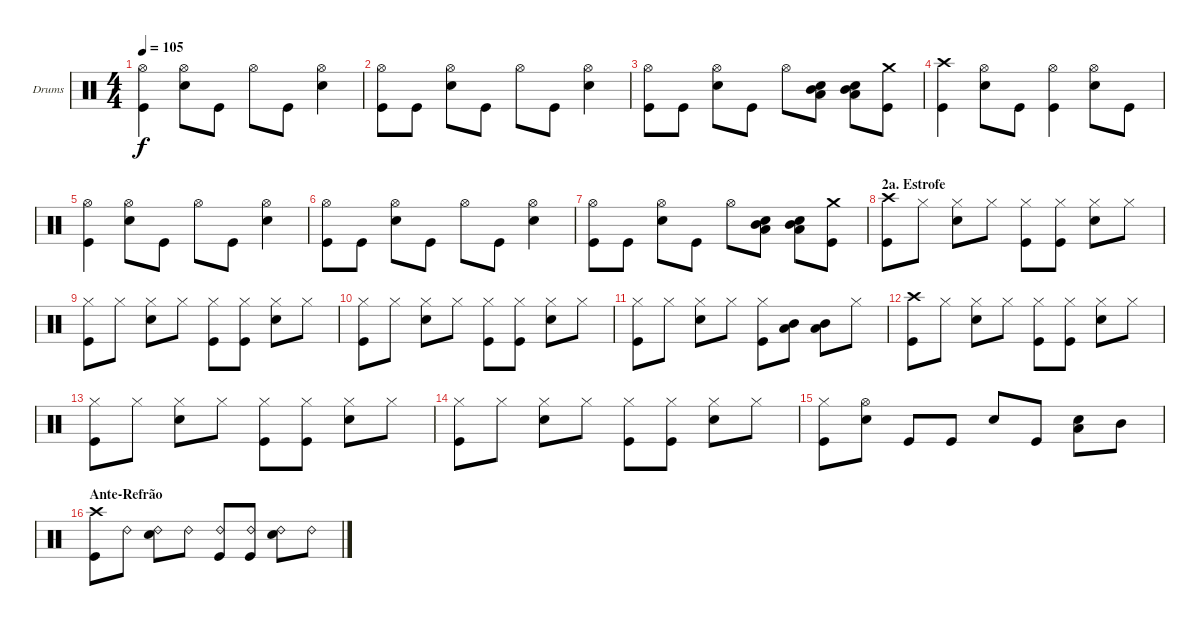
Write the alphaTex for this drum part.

\bracketExtendMode groupsimilarinstruments
\firstSystemTrackNameOrientation horizontal
\otherSystemsTrackNameOrientation horizontal
\track ("Drumkit" "Drums") {instrument percussion}
\staff {score}
\articulation defaults
\ts (4 4)
\tempo 105
\clef neutral
\ks c
("Hi-Hat (open)" "Kick (hit)").4{dy f} ("Hi-Hat (open)" "Snare (hit) 2").8 "Kick (hit)".8 "Hi-Hat (open)".8 "Kick (hit)".8 ("Hi-Hat (open)" "Snare (hit) 2").4 |
("Hi-Hat (open)" "Kick (hit)").8 "Kick (hit)".8 ("Hi-Hat (open)" "Snare (hit) 2").8 "Kick (hit)".8 "Hi-Hat (open)".8 "Kick (hit)".8 ("Hi-Hat (open)" "Snare (hit) 2").4 |
("Hi-Hat (open)" "Kick (hit)").8 "Kick (hit)".8 ("Hi-Hat (open)" "Snare (hit) 2").8 "Kick (hit)".8 "Hi-Hat (open)".8 ("Mid Tom (hit)" "Low Tom (hit)" "Snare (hit) 2").8 ("Mid Tom (hit)" "Low Tom (hit)" "Snare (hit) 2").8 ("Crash medium (hit)" "Kick (hit)").8 |
("Crash high (hit)" "Kick (hit)").4 ("Hi-Hat (open)" "Snare (hit) 2").8 "Kick (hit)".8 ("Hi-Hat (open)" "Kick (hit)").4 ("Hi-Hat (open)" "Snare (hit) 2").8 "Kick (hit)".8 |
("Hi-Hat (open)" "Kick (hit)").4 ("Hi-Hat (open)" "Snare (hit) 2").8 "Kick (hit)".8 "Hi-Hat (open)".8 "Kick (hit)".8 ("Hi-Hat (open)" "Snare (hit) 2").4 |
("Hi-Hat (open)" "Kick (hit)").8 "Kick (hit)".8 ("Hi-Hat (open)" "Snare (hit) 2").8 "Kick (hit)".8 "Hi-Hat (open)".8 "Kick (hit)".8 ("Hi-Hat (open)" "Snare (hit) 2").4 |
("Hi-Hat (open)" "Kick (hit)").8 "Kick (hit)".8 ("Hi-Hat (open)" "Snare (hit) 2").8 "Kick (hit)".8 "Hi-Hat (open)".8 ("Mid Tom (hit)" "Low Tom (hit)" "Snare (hit) 2").8 ("Mid Tom (hit)" "Low Tom (hit)" "Snare (hit) 2").8 ("Crash medium (hit)" "Kick (hit)").8 |
\section ("" "2a. Estrofe")
("Crash high (hit)" "Kick (hit)").8 "Hi-Hat (closed)".8 ("Hi-Hat (closed)" "Snare (hit) 2").8 "Hi-Hat (closed)".8 ("Hi-Hat (closed)" "Kick (hit)").8 ("Hi-Hat (closed)" "Kick (hit)").8 ("Hi-Hat (closed)" "Snare (hit) 2").8 "Hi-Hat (closed)".8 |
("Hi-Hat (closed)" "Kick (hit)").8 "Hi-Hat (closed)".8 ("Hi-Hat (closed)" "Snare (hit) 2").8 "Hi-Hat (closed)".8 ("Hi-Hat (closed)" "Kick (hit)").8 ("Hi-Hat (closed)" "Kick (hit)").8 ("Hi-Hat (closed)" "Snare (hit) 2").8 "Hi-Hat (closed)".8 |
("Hi-Hat (closed)" "Kick (hit)").8 "Hi-Hat (closed)".8 ("Hi-Hat (closed)" "Snare (hit) 2").8 "Hi-Hat (closed)".8 ("Hi-Hat (closed)" "Kick (hit)").8 ("Hi-Hat (closed)" "Kick (hit)").8 ("Hi-Hat (closed)" "Snare (hit) 2").8 "Hi-Hat (closed)".8 |
("Hi-Hat (closed)" "Kick (hit)").8 "Hi-Hat (closed)".8 ("Hi-Hat (closed)" "Snare (hit) 2").8 "Hi-Hat (closed)".8 ("Hi-Hat (closed)" "Kick (hit)").8 ("Mid Tom (hit)" "Low Tom (hit)").8 ("Mid Tom (hit)" "Low Tom (hit)").8 "Hi-Hat (closed)".8 |
("Crash high (hit)" "Kick (hit)").8 "Hi-Hat (closed)".8 ("Hi-Hat (closed)" "Snare (hit) 2").8 "Hi-Hat (closed)".8 ("Hi-Hat (closed)" "Kick (hit)").8 ("Hi-Hat (closed)" "Kick (hit)").8 ("Hi-Hat (closed)" "Snare (hit) 2").8 "Hi-Hat (closed)".8 |
("Hi-Hat (closed)" "Kick (hit)").8 "Hi-Hat (closed)".8 ("Hi-Hat (closed)" "Snare (hit) 2").8 "Hi-Hat (closed)".8 ("Hi-Hat (closed)" "Kick (hit)").8 ("Hi-Hat (closed)" "Kick (hit)").8 ("Hi-Hat (closed)" "Snare (hit) 2").8 "Hi-Hat (closed)".8 |
("Hi-Hat (closed)" "Kick (hit)").8 "Hi-Hat (closed)".8 ("Hi-Hat (closed)" "Snare (hit) 2").8 "Hi-Hat (closed)".8 ("Hi-Hat (closed)" "Kick (hit)").8 ("Hi-Hat (closed)" "Kick (hit)").8 ("Hi-Hat (closed)" "Snare (hit) 2").8 "Hi-Hat (closed)".8 |
("Hi-Hat (closed)" "Kick (hit)").8 ("Hi-Hat (open)" "Snare (hit) 2").8 "Kick (hit)".8 "Kick (hit)".8 "Snare (hit) 2".8 "Kick (hit)".8 ("Low Tom (hit)" "Snare (hit) 2").8 "Mid Tom (hit)".8 |
\section ("" "Ante-Refrão")
("Crash high (hit)" "Kick (hit)").8 "Ride (bell) 2".8 ("Ride (bell) 2" "Snare (hit) 2").8 "Ride (bell) 2".8 ("Ride (bell) 2" "Kick (hit)").8 ("Ride (bell) 2" "Kick (hit)").8 ("Ride (bell) 2" "Snare (hit) 2").8 "Ride (bell) 2".8
